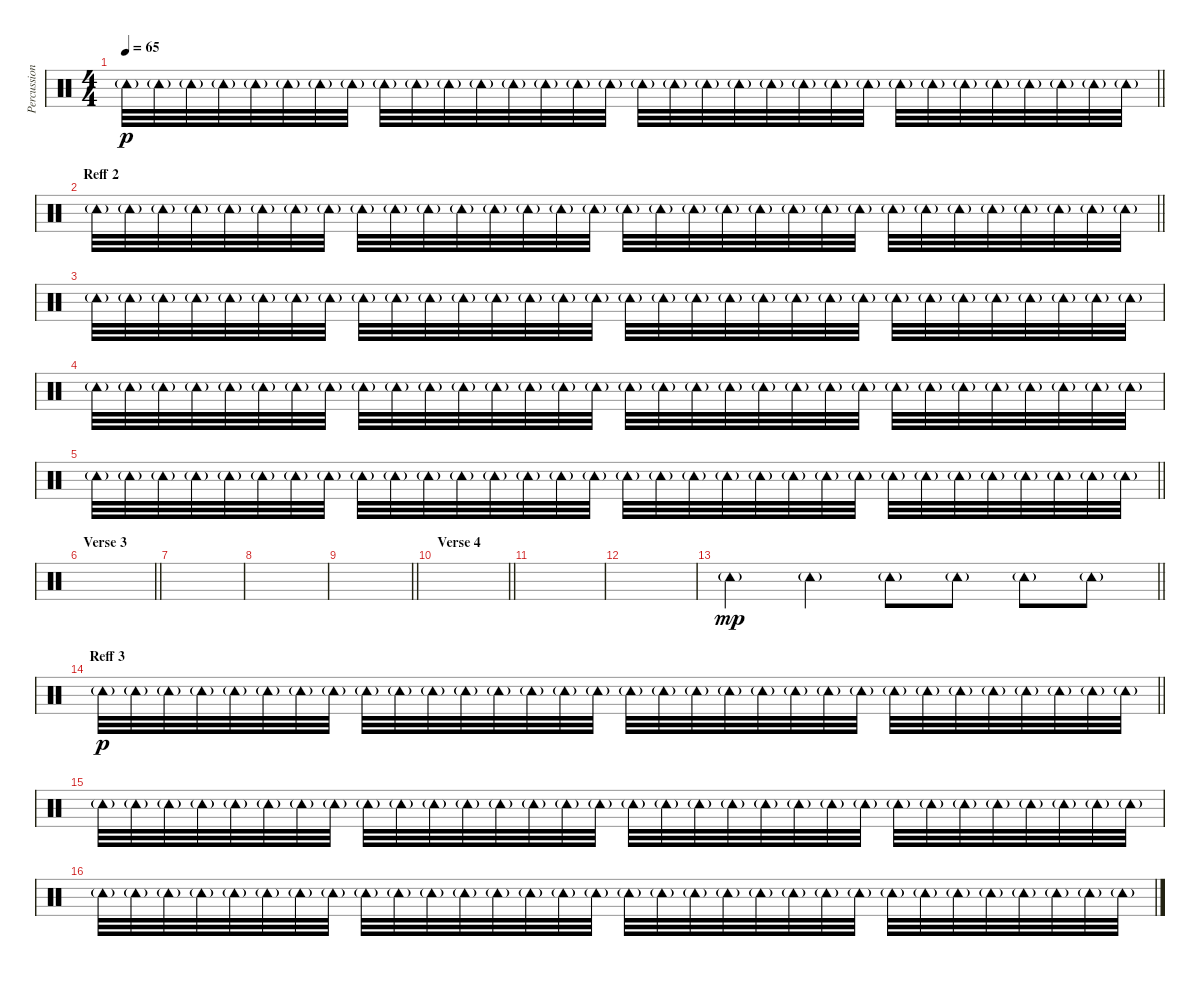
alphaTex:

\track ("Percussion 3 (Tamb)" "Percussion") {instrument percussion}
\staff {score}
\articulation defaults
\ts (4 4)
\tempo 65
\clef neutral
\barLineRight lightlight
\ks c "Tambourine (hit)"{g}.32{dy p} "Tambourine (hit)"{g}.32 "Tambourine (hit)"{g}.32 "Tambourine (hit)"{g}.32 "Tambourine (hit)"{g}.32 "Tambourine (hit)"{g}.32 "Tambourine (hit)"{g}.32 "Tambourine (hit)"{g}.32 "Tambourine (hit)"{g}.32 "Tambourine (hit)"{g}.32 "Tambourine (hit)"{g}.32 "Tambourine (hit)"{g}.32 "Tambourine (hit)"{g}.32 "Tambourine (hit)"{g}.32 "Tambourine (hit)"{g}.32 "Tambourine (hit)"{g}.32 "Tambourine (hit)"{g}.32 "Tambourine (hit)"{g}.32 "Tambourine (hit)"{g}.32 "Tambourine (hit)"{g}.32 "Tambourine (hit)"{g}.32 "Tambourine (hit)"{g}.32 "Tambourine (hit)"{g}.32 "Tambourine (hit)"{g}.32 "Tambourine (hit)"{g}.32 "Tambourine (hit)"{g}.32 "Tambourine (hit)"{g}.32 "Tambourine (hit)"{g}.32 "Tambourine (hit)"{g}.32 "Tambourine (hit)"{g}.32 "Tambourine (hit)"{g}.32 "Tambourine (hit)"{g}.32
|
\section ("" "Reff 2")
\barLineRight lightlight "Tambourine (hit)"{g}.32 "Tambourine (hit)"{g}.32 "Tambourine (hit)"{g}.32 "Tambourine (hit)"{g}.32 "Tambourine (hit)"{g}.32 "Tambourine (hit)"{g}.32 "Tambourine (hit)"{g}.32 "Tambourine (hit)"{g}.32 "Tambourine (hit)"{g}.32 "Tambourine (hit)"{g}.32 "Tambourine (hit)"{g}.32 "Tambourine (hit)"{g}.32 "Tambourine (hit)"{g}.32 "Tambourine (hit)"{g}.32 "Tambourine (hit)"{g}.32 "Tambourine (hit)"{g}.32 "Tambourine (hit)"{g}.32 "Tambourine (hit)"{g}.32 "Tambourine (hit)"{g}.32 "Tambourine (hit)"{g}.32 "Tambourine (hit)"{g}.32 "Tambourine (hit)"{g}.32 "Tambourine (hit)"{g}.32 "Tambourine (hit)"{g}.32 "Tambourine (hit)"{g}.32 "Tambourine (hit)"{g}.32 "Tambourine (hit)"{g}.32 "Tambourine (hit)"{g}.32 "Tambourine (hit)"{g}.32 "Tambourine (hit)"{g}.32 "Tambourine (hit)"{g}.32 "Tambourine (hit)"{g}.32
|
"Tambourine (hit)"{g}.32 "Tambourine (hit)"{g}.32 "Tambourine (hit)"{g}.32 "Tambourine (hit)"{g}.32 "Tambourine (hit)"{g}.32 "Tambourine (hit)"{g}.32 "Tambourine (hit)"{g}.32 "Tambourine (hit)"{g}.32 "Tambourine (hit)"{g}.32 "Tambourine (hit)"{g}.32 "Tambourine (hit)"{g}.32 "Tambourine (hit)"{g}.32 "Tambourine (hit)"{g}.32 "Tambourine (hit)"{g}.32 "Tambourine (hit)"{g}.32 "Tambourine (hit)"{g}.32 "Tambourine (hit)"{g}.32 "Tambourine (hit)"{g}.32 "Tambourine (hit)"{g}.32 "Tambourine (hit)"{g}.32 "Tambourine (hit)"{g}.32 "Tambourine (hit)"{g}.32 "Tambourine (hit)"{g}.32 "Tambourine (hit)"{g}.32 "Tambourine (hit)"{g}.32 "Tambourine (hit)"{g}.32 "Tambourine (hit)"{g}.32 "Tambourine (hit)"{g}.32 "Tambourine (hit)"{g}.32 "Tambourine (hit)"{g}.32 "Tambourine (hit)"{g}.32 "Tambourine (hit)"{g}.32 |
"Tambourine (hit)"{g}.32 "Tambourine (hit)"{g}.32 "Tambourine (hit)"{g}.32 "Tambourine (hit)"{g}.32 "Tambourine (hit)"{g}.32 "Tambourine (hit)"{g}.32 "Tambourine (hit)"{g}.32 "Tambourine (hit)"{g}.32 "Tambourine (hit)"{g}.32 "Tambourine (hit)"{g}.32 "Tambourine (hit)"{g}.32 "Tambourine (hit)"{g}.32 "Tambourine (hit)"{g}.32 "Tambourine (hit)"{g}.32 "Tambourine (hit)"{g}.32 "Tambourine (hit)"{g}.32 "Tambourine (hit)"{g}.32 "Tambourine (hit)"{g}.32 "Tambourine (hit)"{g}.32 "Tambourine (hit)"{g}.32 "Tambourine (hit)"{g}.32 "Tambourine (hit)"{g}.32 "Tambourine (hit)"{g}.32 "Tambourine (hit)"{g}.32 "Tambourine (hit)"{g}.32 "Tambourine (hit)"{g}.32 "Tambourine (hit)"{g}.32 "Tambourine (hit)"{g}.32 "Tambourine (hit)"{g}.32 "Tambourine (hit)"{g}.32 "Tambourine (hit)"{g}.32 "Tambourine (hit)"{g}.32 |
\barLineRight lightlight "Tambourine (hit)"{g}.32 "Tambourine (hit)"{g}.32 "Tambourine (hit)"{g}.32 "Tambourine (hit)"{g}.32 "Tambourine (hit)"{g}.32 "Tambourine (hit)"{g}.32 "Tambourine (hit)"{g}.32 "Tambourine (hit)"{g}.32 "Tambourine (hit)"{g}.32 "Tambourine (hit)"{g}.32 "Tambourine (hit)"{g}.32 "Tambourine (hit)"{g}.32 "Tambourine (hit)"{g}.32 "Tambourine (hit)"{g}.32 "Tambourine (hit)"{g}.32 "Tambourine (hit)"{g}.32 "Tambourine (hit)"{g}.32 "Tambourine (hit)"{g}.32 "Tambourine (hit)"{g}.32 "Tambourine (hit)"{g}.32 "Tambourine (hit)"{g}.32 "Tambourine (hit)"{g}.32 "Tambourine (hit)"{g}.32 "Tambourine (hit)"{g}.32 "Tambourine (hit)"{g}.32 "Tambourine (hit)"{g}.32 "Tambourine (hit)"{g}.32 "Tambourine (hit)"{g}.32 "Tambourine (hit)"{g}.32 "Tambourine (hit)"{g}.32 "Tambourine (hit)"{g}.32 "Tambourine (hit)"{g}.32
|
\section ("" "Verse 3")
\barLineRight lightlight
|
|
|
\barLineRight lightlight
|
\section ("" "Verse 4")
\barLineRight lightlight
|
|
|
\barLineRight lightlight "Tambourine (hit)"{g}.4{dy mp} "Tambourine (hit)"{g}.4 "Tambourine (hit)"{g}.8 "Tambourine (hit)"{g}.8 "Tambourine (hit)"{g}.8 "Tambourine (hit)"{g}.8
|
\section ("" "Reff 3")
\barLineRight lightlight "Tambourine (hit)"{g}.32{dy p} "Tambourine (hit)"{g}.32 "Tambourine (hit)"{g}.32 "Tambourine (hit)"{g}.32 "Tambourine (hit)"{g}.32 "Tambourine (hit)"{g}.32 "Tambourine (hit)"{g}.32 "Tambourine (hit)"{g}.32 "Tambourine (hit)"{g}.32 "Tambourine (hit)"{g}.32 "Tambourine (hit)"{g}.32 "Tambourine (hit)"{g}.32 "Tambourine (hit)"{g}.32 "Tambourine (hit)"{g}.32 "Tambourine (hit)"{g}.32 "Tambourine (hit)"{g}.32 "Tambourine (hit)"{g}.32 "Tambourine (hit)"{g}.32 "Tambourine (hit)"{g}.32 "Tambourine (hit)"{g}.32 "Tambourine (hit)"{g}.32 "Tambourine (hit)"{g}.32 "Tambourine (hit)"{g}.32 "Tambourine (hit)"{g}.32 "Tambourine (hit)"{g}.32 "Tambourine (hit)"{g}.32 "Tambourine (hit)"{g}.32 "Tambourine (hit)"{g}.32 "Tambourine (hit)"{g}.32 "Tambourine (hit)"{g}.32 "Tambourine (hit)"{g}.32 "Tambourine (hit)"{g}.32
|
"Tambourine (hit)"{g}.32 "Tambourine (hit)"{g}.32 "Tambourine (hit)"{g}.32 "Tambourine (hit)"{g}.32 "Tambourine (hit)"{g}.32 "Tambourine (hit)"{g}.32 "Tambourine (hit)"{g}.32 "Tambourine (hit)"{g}.32 "Tambourine (hit)"{g}.32 "Tambourine (hit)"{g}.32 "Tambourine (hit)"{g}.32 "Tambourine (hit)"{g}.32 "Tambourine (hit)"{g}.32 "Tambourine (hit)"{g}.32 "Tambourine (hit)"{g}.32 "Tambourine (hit)"{g}.32 "Tambourine (hit)"{g}.32 "Tambourine (hit)"{g}.32 "Tambourine (hit)"{g}.32 "Tambourine (hit)"{g}.32 "Tambourine (hit)"{g}.32 "Tambourine (hit)"{g}.32 "Tambourine (hit)"{g}.32 "Tambourine (hit)"{g}.32 "Tambourine (hit)"{g}.32 "Tambourine (hit)"{g}.32 "Tambourine (hit)"{g}.32 "Tambourine (hit)"{g}.32 "Tambourine (hit)"{g}.32 "Tambourine (hit)"{g}.32 "Tambourine (hit)"{g}.32 "Tambourine (hit)"{g}.32 |
"Tambourine (hit)"{g}.32 "Tambourine (hit)"{g}.32 "Tambourine (hit)"{g}.32 "Tambourine (hit)"{g}.32 "Tambourine (hit)"{g}.32 "Tambourine (hit)"{g}.32 "Tambourine (hit)"{g}.32 "Tambourine (hit)"{g}.32 "Tambourine (hit)"{g}.32 "Tambourine (hit)"{g}.32 "Tambourine (hit)"{g}.32 "Tambourine (hit)"{g}.32 "Tambourine (hit)"{g}.32 "Tambourine (hit)"{g}.32 "Tambourine (hit)"{g}.32 "Tambourine (hit)"{g}.32 "Tambourine (hit)"{g}.32 "Tambourine (hit)"{g}.32 "Tambourine (hit)"{g}.32 "Tambourine (hit)"{g}.32 "Tambourine (hit)"{g}.32 "Tambourine (hit)"{g}.32 "Tambourine (hit)"{g}.32 "Tambourine (hit)"{g}.32 "Tambourine (hit)"{g}.32 "Tambourine (hit)"{g}.32 "Tambourine (hit)"{g}.32 "Tambourine (hit)"{g}.32 "Tambourine (hit)"{g}.32 "Tambourine (hit)"{g}.32 "Tambourine (hit)"{g}.32 "Tambourine (hit)"{g}.32
